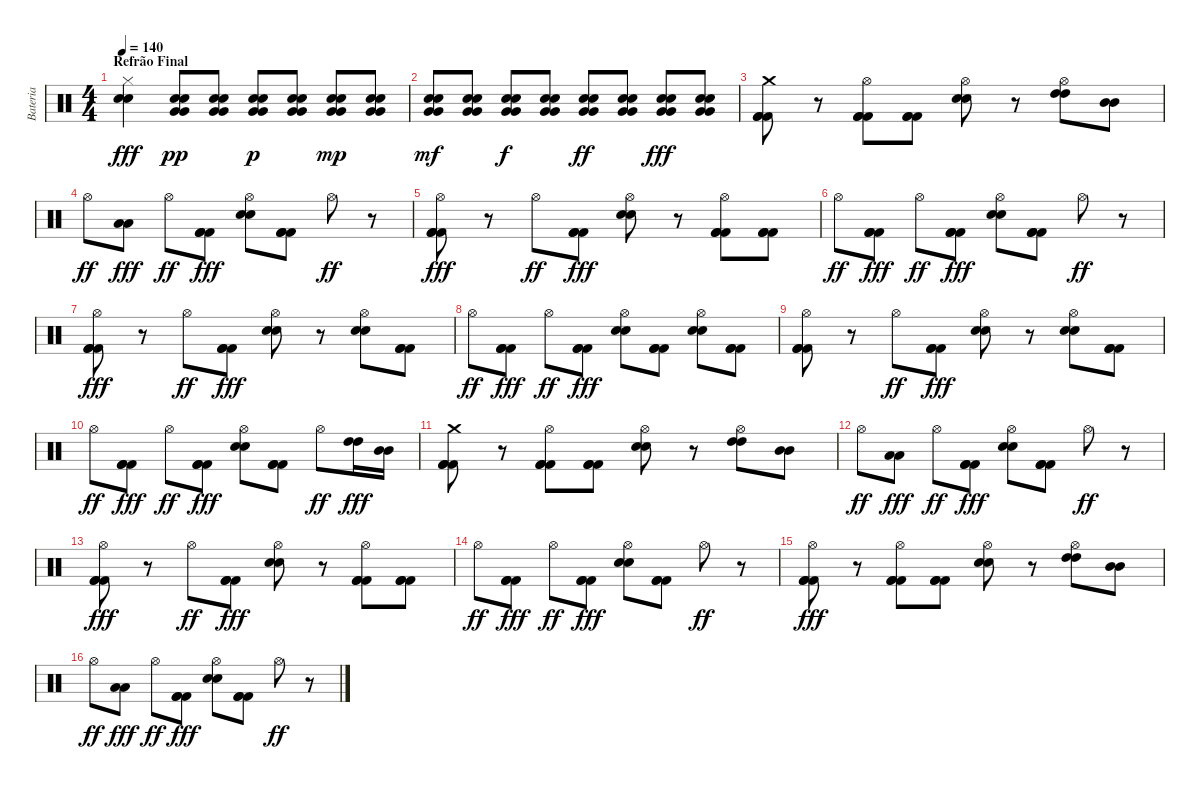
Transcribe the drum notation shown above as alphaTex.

\track ("Bateria" "Bateria") {instrument percussion}
\staff {score}
\articulation defaults
\ts (4 4)
\section ("" "Refrão Final")
\tempo 140
\clef neutral
\ks c
("Hi-Hat (closed)" "Snare (hit) 2" "Snare (hit) 2").4{dy fff} ("Snare (hit) 2" "Snare (hit) 2" "Very Low Tom (hit)" "Very Low Tom (hit)").8{dy pp} ("Snare (hit) 2" "Snare (hit) 2" "Very Low Tom (hit)" "Very Low Tom (hit)").8 ("Snare (hit) 2" "Snare (hit) 2" "Very Low Tom (hit)" "Very Low Tom (hit)").8{dy p} ("Snare (hit) 2" "Snare (hit) 2" "Very Low Tom (hit)" "Very Low Tom (hit)").8 ("Snare (hit) 2" "Snare (hit) 2" "Very Low Tom (hit)" "Very Low Tom (hit)").8{dy mp} ("Snare (hit) 2" "Snare (hit) 2" "Very Low Tom (hit)" "Very Low Tom (hit)").8 |
("Snare (hit) 2" "Snare (hit) 2" "Very Low Tom (hit)" "Very Low Tom (hit)").8{dy mf} ("Snare (hit) 2" "Snare (hit) 2" "Very Low Tom (hit)" "Very Low Tom (hit)").8 ("Snare (hit) 2" "Snare (hit) 2" "Very Low Tom (hit)" "Very Low Tom (hit)").8{dy f} ("Snare (hit) 2" "Snare (hit) 2" "Very Low Tom (hit)" "Very Low Tom (hit)").8 ("Snare (hit) 2" "Snare (hit) 2" "Very Low Tom (hit)" "Very Low Tom (hit)").8{dy ff} ("Snare (hit) 2" "Snare (hit) 2" "Very Low Tom (hit)" "Very Low Tom (hit)").8 ("Snare (hit) 2" "Snare (hit) 2" "Very Low Tom (hit)" "Very Low Tom (hit)").8{dy fff} ("Snare (hit) 2" "Snare (hit) 2" "Very Low Tom (hit)" "Very Low Tom (hit)").8 |
("Crash medium (hit)" "Kick (hit) 2" "Kick (hit) 2" "Kick (hit) 2").8 r.8 ("Hi-Hat (open)" "Kick (hit) 2" "Kick (hit) 2" "Kick (hit) 2").8 ("Kick (hit) 2" "Kick (hit) 2" "Kick (hit) 2").8 ("Hi-Hat (open)" "Snare (hit) 2" "Snare (hit) 2").8 r.8 ("Hi-Hat (open)" "High Tom (hit)" "High Tom (hit)").8 ("Mid Tom (hit)" "Mid Tom (hit)").8 |
"Hi-Hat (open)".8{dy ff} ("Low Tom (hit)" "Low Tom (hit)").8{dy fff} "Hi-Hat (open)".8{dy ff} ("Kick (hit) 2" "Kick (hit) 2" "Kick (hit) 2").8{dy fff} ("Hi-Hat (open)" "Snare (hit) 2" "Snare (hit) 2").8 ("Kick (hit) 2" "Kick (hit) 2" "Kick (hit) 2").8 "Hi-Hat (open)".8{dy ff} r.8 |
("Hi-Hat (open)" "Kick (hit) 2" "Kick (hit) 2" "Kick (hit) 2").8{dy fff} r.8 "Hi-Hat (open)".8{dy ff} ("Kick (hit) 2" "Kick (hit) 2" "Kick (hit) 2").8{dy fff} ("Hi-Hat (open)" "Snare (hit) 2" "Snare (hit) 2").8 r.8 ("Hi-Hat (open)" "Kick (hit) 2" "Kick (hit) 2" "Kick (hit) 2").8 ("Kick (hit) 2" "Kick (hit) 2" "Kick (hit) 2").8 |
"Hi-Hat (open)".8{dy ff} ("Kick (hit) 2" "Kick (hit) 2" "Kick (hit) 2").8{dy fff} "Hi-Hat (open)".8{dy ff} ("Kick (hit) 2" "Kick (hit) 2" "Kick (hit) 2").8{dy fff} ("Hi-Hat (open)" "Snare (hit) 2" "Snare (hit) 2").8 ("Kick (hit) 2" "Kick (hit) 2" "Kick (hit) 2").8 "Hi-Hat (open)".8{dy ff} r.8 |
("Hi-Hat (open)" "Kick (hit) 2" "Kick (hit) 2" "Kick (hit) 2").8{dy fff} r.8 "Hi-Hat (open)".8{dy ff} ("Kick (hit) 2" "Kick (hit) 2" "Kick (hit) 2").8{dy fff} ("Hi-Hat (open)" "Snare (hit) 2" "Snare (hit) 2").8 r.8 ("Hi-Hat (open)" "Snare (hit) 2" "Snare (hit) 2").8 ("Kick (hit) 2" "Kick (hit) 2" "Kick (hit) 2").8 |
"Hi-Hat (open)".8{dy ff} ("Kick (hit) 2" "Kick (hit) 2" "Kick (hit) 2").8{dy fff} "Hi-Hat (open)".8{dy ff} ("Kick (hit) 2" "Kick (hit) 2" "Kick (hit) 2").8{dy fff} ("Hi-Hat (open)" "Snare (hit) 2" "Snare (hit) 2").8 ("Kick (hit) 2" "Kick (hit) 2" "Kick (hit) 2").8 ("Hi-Hat (open)" "Snare (hit) 2" "Snare (hit) 2").8 ("Kick (hit) 2" "Kick (hit) 2" "Kick (hit) 2").8 |
("Hi-Hat (open)" "Kick (hit) 2" "Kick (hit) 2" "Kick (hit) 2").8 r.8 "Hi-Hat (open)".8{dy ff} ("Kick (hit) 2" "Kick (hit) 2" "Kick (hit) 2").8{dy fff} ("Hi-Hat (open)" "Snare (hit) 2" "Snare (hit) 2").8 r.8 ("Hi-Hat (open)" "Snare (hit) 2" "Snare (hit) 2").8 ("Kick (hit) 2" "Kick (hit) 2" "Kick (hit) 2").8 |
"Hi-Hat (open)".8{dy ff} ("Kick (hit) 2" "Kick (hit) 2" "Kick (hit) 2").8{dy fff} "Hi-Hat (open)".8{dy ff} ("Kick (hit) 2" "Kick (hit) 2" "Kick (hit) 2").8{dy fff} ("Hi-Hat (open)" "Snare (hit) 2" "Snare (hit) 2").8 ("Kick (hit) 2" "Kick (hit) 2" "Kick (hit) 2").8 "Hi-Hat (open)".8{dy ff} ("High Tom (hit)" "High Tom (hit)").16{dy fff} ("Mid Tom (hit)" "Mid Tom (hit)").16 |
("Crash medium (hit)" "Kick (hit) 2" "Kick (hit) 2" "Kick (hit) 2").8 r.8 ("Hi-Hat (open)" "Kick (hit) 2" "Kick (hit) 2" "Kick (hit) 2").8 ("Kick (hit) 2" "Kick (hit) 2" "Kick (hit) 2").8 ("Hi-Hat (open)" "Snare (hit) 2" "Snare (hit) 2").8 r.8 ("Hi-Hat (open)" "High Tom (hit)" "High Tom (hit)").8 ("Mid Tom (hit)" "Mid Tom (hit)").8 |
"Hi-Hat (open)".8{dy ff} ("Low Tom (hit)" "Low Tom (hit)").8{dy fff} "Hi-Hat (open)".8{dy ff} ("Kick (hit) 2" "Kick (hit) 2" "Kick (hit) 2").8{dy fff} ("Hi-Hat (open)" "Snare (hit) 2" "Snare (hit) 2").8 ("Kick (hit) 2" "Kick (hit) 2" "Kick (hit) 2").8 "Hi-Hat (open)".8{dy ff} r.8 |
("Hi-Hat (open)" "Kick (hit) 2" "Kick (hit) 2" "Kick (hit) 2").8{dy fff} r.8 "Hi-Hat (open)".8{dy ff} ("Kick (hit) 2" "Kick (hit) 2" "Kick (hit) 2").8{dy fff} ("Hi-Hat (open)" "Snare (hit) 2" "Snare (hit) 2").8 r.8 ("Hi-Hat (open)" "Kick (hit) 2" "Kick (hit) 2" "Kick (hit) 2").8 ("Kick (hit) 2" "Kick (hit) 2" "Kick (hit) 2").8 |
"Hi-Hat (open)".8{dy ff} ("Kick (hit) 2" "Kick (hit) 2" "Kick (hit) 2").8{dy fff} "Hi-Hat (open)".8{dy ff} ("Kick (hit) 2" "Kick (hit) 2" "Kick (hit) 2").8{dy fff} ("Hi-Hat (open)" "Snare (hit) 2" "Snare (hit) 2").8 ("Kick (hit) 2" "Kick (hit) 2" "Kick (hit) 2").8 "Hi-Hat (open)".8{dy ff} r.8 |
("Hi-Hat (open)" "Kick (hit) 2" "Kick (hit) 2" "Kick (hit) 2").8{dy fff} r.8 ("Hi-Hat (open)" "Kick (hit) 2" "Kick (hit) 2" "Kick (hit) 2").8 ("Kick (hit) 2" "Kick (hit) 2" "Kick (hit) 2").8 ("Hi-Hat (open)" "Snare (hit) 2" "Snare (hit) 2").8 r.8 ("Hi-Hat (open)" "High Tom (hit)" "High Tom (hit)").8 ("Mid Tom (hit)" "Mid Tom (hit)").8 |
"Hi-Hat (open)".8{dy ff} ("Low Tom (hit)" "Low Tom (hit)").8{dy fff} "Hi-Hat (open)".8{dy ff} ("Kick (hit) 2" "Kick (hit) 2" "Kick (hit) 2").8{dy fff} ("Hi-Hat (open)" "Snare (hit) 2" "Snare (hit) 2").8 ("Kick (hit) 2" "Kick (hit) 2" "Kick (hit) 2").8 "Hi-Hat (open)".8{dy ff} r.8
